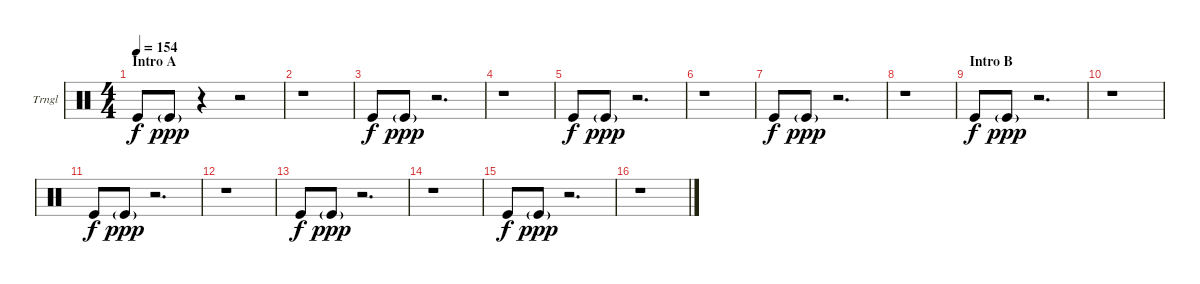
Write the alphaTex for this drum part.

\defaultSystemsLayout 4
\bracketExtendMode groupsimilarinstruments
\firstSystemTrackNameOrientation horizontal
\otherSystemsTrackNameOrientation horizontal
\track ("Triangle" "Trngl") {instrument percussion}
\staff {score}
\articulation defaults
\ts (4 4)
\section ("" "Intro A")
\tempo 154
\clef neutral
\ks c "Kick (hit)".8{dy f} "Kick (hit)"{g}.8{dy ppp}
r.4 r.2 |
r.1 |
"Kick (hit)".8{dy f} "Kick (hit)"{g}.8{dy ppp} r.2{d} |
r.1 |
"Kick (hit)".8{dy f} "Kick (hit)"{g}.8{dy ppp} r.2{d} |
r.1 |
"Kick (hit)".8{dy f} "Kick (hit)"{g}.8{dy ppp} r.2{d} |
r.1 |
\section ("" "Intro B")
"Kick (hit)".8{dy f} "Kick (hit)"{g}.8{dy ppp} r.2{d} |
r.1 |
"Kick (hit)".8{dy f} "Kick (hit)"{g}.8{dy ppp} r.2{d} |
r.1 |
"Kick (hit)".8{dy f} "Kick (hit)"{g}.8{dy ppp} r.2{d} |
r.1 |
"Kick (hit)".8{dy f} "Kick (hit)"{g}.8{dy ppp} r.2{d} |
r.1
